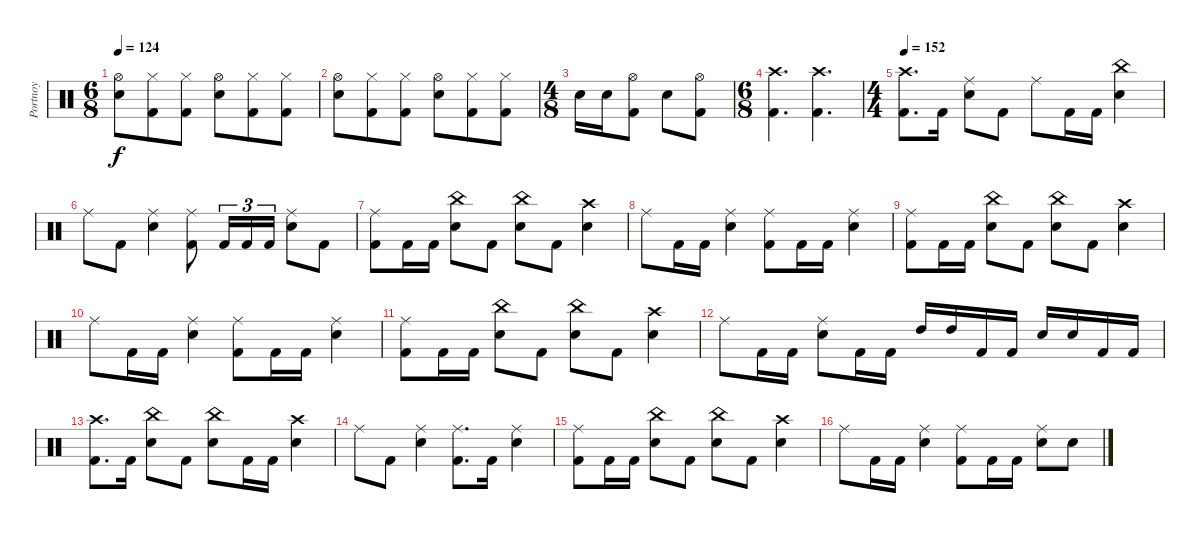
\track ("Portnoy" "Portnoy") {instrument percussion}
\staff {score}
\articulation defaults
\ts (6 8)
\tempo 124
\clef neutral
\ks c
("Hi-Hat (open)" "Electric Snare (hit)").8{dy f} ("Hi-Hat (closed)" "Kick (hit) 2").8 ("Hi-Hat (closed)" "Kick (hit) 2").8 ("Hi-Hat (open)" "Electric Snare (hit)").8 ("Hi-Hat (closed)" "Kick (hit) 2").8 ("Hi-Hat (closed)" "Kick (hit) 2").8 |
("Hi-Hat (open)" "Electric Snare (hit)").8 ("Hi-Hat (closed)" "Kick (hit) 2").8 ("Hi-Hat (closed)" "Kick (hit) 2").8 ("Hi-Hat (open)" "Electric Snare (hit)").8 ("Hi-Hat (closed)" "Kick (hit) 2").8 ("Hi-Hat (closed)" "Kick (hit) 2").8 |
\ts (4 8)
"Electric Snare (hit)".16 "Electric Snare (hit)".16{beam merge} ("Hi-Hat (open)" "Kick (hit) 2").8 "Electric Snare (hit)".8 ("Hi-Hat (open)" "Kick (hit) 2").8 |
\ts (6 8)
("Crash high (hit)" "Kick (hit) 2").4{d} ("Crash high (hit)" "Kick (hit) 2").4{d} |
\ts (4 4)
\tempo 152
("Crash high (hit)" "Kick (hit) 2").8{d} "Kick (hit) 2".16 ("Ride (middle)" "Electric Snare (hit)").8 "Kick (hit) 2".8 "Ride (middle)".8 "Kick (hit) 2".16 "Kick (hit) 2".16 ("China (hit)" "Electric Snare (hit)").4 |
"Ride (middle)".8 "Kick (hit) 2".8 ("Ride (middle)" "Electric Snare (hit)").4 ("Ride (middle)" "Kick (hit) 2").8 "Kick (hit) 2".16{tu (3 2)} "Kick (hit) 2".16{tu (3 2)} "Kick (hit) 2".16{tu (3 2)} ("Ride (middle)" "Electric Snare (hit)").8 "Kick (hit) 2".8 |
("Ride (middle)" "Kick (hit) 2").8 "Kick (hit) 2".16 "Kick (hit) 2".16 ("China (hit)" "Electric Snare (hit)").8 "Kick (hit) 2".8 ("China (hit)" "Electric Snare (hit)").8 "Kick (hit) 2".8 ("Crash high (hit)" "Electric Snare (hit)").4 |
"Ride (middle)".8 "Kick (hit) 2".16 "Kick (hit) 2".16 ("Ride (middle)" "Electric Snare (hit)").4 ("Ride (middle)" "Kick (hit) 2").8 "Kick (hit) 2".16 "Kick (hit) 2".16 ("Ride (middle)" "Electric Snare (hit)").4 |
("Ride (middle)" "Kick (hit) 2").8 "Kick (hit) 2".16 "Kick (hit) 2".16 ("China (hit)" "Electric Snare (hit)").8 "Kick (hit) 2".8 ("China (hit)" "Electric Snare (hit)").8 "Kick (hit) 2".8 ("Crash high (hit)" "Electric Snare (hit)").4 |
"Ride (middle)".8 "Kick (hit) 2".16 "Kick (hit) 2".16 ("Ride (middle)" "Electric Snare (hit)").4 ("Ride (middle)" "Kick (hit) 2").8 "Kick (hit) 2".16 "Kick (hit) 2".16 ("Ride (middle)" "Electric Snare (hit)").4 |
("Ride (middle)" "Kick (hit) 2").8 "Kick (hit) 2".16 "Kick (hit) 2".16 ("China (hit)" "Electric Snare (hit)").8 "Kick (hit) 2".8 ("China (hit)" "Electric Snare (hit)").8 "Kick (hit) 2".8 ("Crash high (hit)" "Electric Snare (hit)").4 |
"Ride (middle)".8 "Kick (hit) 2".16 "Kick (hit) 2".16 ("Ride (middle)" "Electric Snare (hit)").8 "Kick (hit) 2".16 "Kick (hit) 2".16 "High Tom (hit)".16 "High Tom (hit)".16 "Kick (hit) 2".16 "Kick (hit) 2".16 "Electric Snare (hit)".16 "Electric Snare (hit)".16 "Kick (hit) 2".16 "Kick (hit) 2".16 |
("Crash high (hit)" "Kick (hit) 2").8{d} "Kick (hit) 2".16 ("China (hit)" "Electric Snare (hit)").8 "Kick (hit) 2".8 ("China (hit)" "Electric Snare (hit)").8 "Kick (hit) 2".16 "Kick (hit) 2".16 ("Crash high (hit)" "Electric Snare (hit)").4 |
"Ride (middle)".8 "Kick (hit) 2".8 ("Ride (middle)" "Electric Snare (hit)").4 ("Ride (middle)" "Kick (hit) 2").8{d} "Kick (hit) 2".16 ("Ride (middle)" "Electric Snare (hit)").4 |
("Ride (middle)" "Kick (hit) 2").8 "Kick (hit) 2".16 "Kick (hit) 2".16 ("China (hit)" "Electric Snare (hit)").8 "Kick (hit) 2".8 ("China (hit)" "Electric Snare (hit)").8 "Kick (hit) 2".8 ("Crash high (hit)" "Electric Snare (hit)").4 |
"Ride (middle)".8 "Kick (hit) 2".16 "Kick (hit) 2".16 ("Ride (middle)" "Electric Snare (hit)").4 ("Ride (middle)" "Kick (hit) 2").8 "Kick (hit) 2".16 "Kick (hit) 2".16 ("Ride (middle)" "Electric Snare (hit)").8 "Electric Snare (hit)".8
